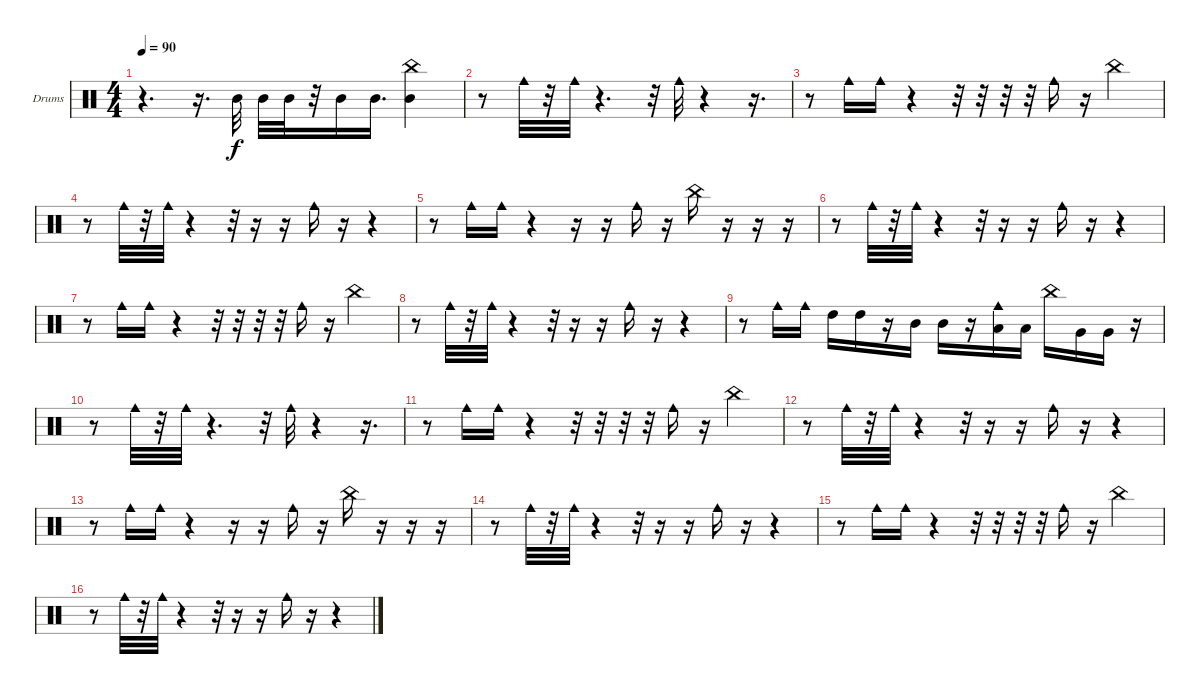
\defaultSystemsLayout 4
\bracketExtendMode groupsimilarinstruments
\firstSystemTrackNameOrientation horizontal
\otherSystemsTrackNameOrientation horizontal
\track ("Drumkit" "Drums") {instrument percussion}
\staff {score}
\articulation defaults
\ts (4 4)
\tempo 90
\clef neutral
\scale
0.472222
\ks c
r.4{d dy f} r.16{d} "Mid Tom (hit)".32 "Mid Tom (hit)".32 "Mid Tom (hit)".32 r.32 "Mid Tom (hit)".16 "Mid Tom (hit)".16{d} ("China (hit)" "Mid Tom (hit)").4 |
\scale
0.263889 r.8 "Cowbell medium (hit)".32 r.32 "Cowbell medium (hit)".32 r.4{d} r.32 "Cowbell medium (hit)".32 r.4 r.16{d} |
\scale
0.263889 r.8 "Cowbell medium (hit)".16 "Cowbell medium (hit)".16 r.4 r.32 r.32 r.32 r.32 "Cowbell medium (hit)".16 r.16 "China (hit)".4 |
\scale
0.333333 r.8 "Cowbell medium (hit)".32 r.32 "Cowbell medium (hit)".32 r.4 r.32 r.16 r.16 "Cowbell medium (hit)".16 r.16 r.4 |
\scale
0.333333 r.8 "Cowbell medium (hit)".16 "Cowbell medium (hit)".16 r.4 r.16 r.16 "Cowbell medium (hit)".16 r.16 "China (hit)".16 r.16 r.16 r.16 |
\scale
0.333333 r.8 "Cowbell medium (hit)".32 r.32 "Cowbell medium (hit)".32 r.4 r.32 r.16 r.16 "Cowbell medium (hit)".16 r.16 r.4 |
\scale
0.333333 r.8 "Cowbell medium (hit)".16 "Cowbell medium (hit)".16 r.4 r.32 r.32 r.32 r.32 "Cowbell medium (hit)".16 r.16 "China (hit)".4 |
\scale
0.333333 r.8 "Cowbell medium (hit)".32 r.32 "Cowbell medium (hit)".32 r.4 r.32 r.16 r.16 "Cowbell medium (hit)".16 r.16 r.4 |
\scale
0.333333 r.8 "Cowbell medium (hit)".16 "Cowbell medium (hit)".16 "High Tom (hit)".16 "High Tom (hit)".16 r.16 "Mid Tom (hit)".16 "Mid Tom (hit)".16 r.16 ("Low Tom (hit)" "Cowbell medium (hit)").16 "Low Tom (hit)".16 "China (hit)".16 "Very Low Tom (hit)".16 "Very Low Tom (hit)".16 r.16 |
\scale
0.333333 r.8 "Cowbell medium (hit)".32 r.32 "Cowbell medium (hit)".32 r.4{d} r.32 "Cowbell medium (hit)".32 r.4 r.16{d} |
\scale
0.333333 r.8 "Cowbell medium (hit)".16 "Cowbell medium (hit)".16 r.4 r.32 r.32 r.32 r.32 "Cowbell medium (hit)".16 r.16 "China (hit)".4 |
\scale
0.333333 r.8 "Cowbell medium (hit)".32 r.32 "Cowbell medium (hit)".32 r.4 r.32 r.16 r.16 "Cowbell medium (hit)".16 r.16 r.4 |
\scale
0.333333 r.8 "Cowbell medium (hit)".16 "Cowbell medium (hit)".16 r.4 r.16 r.16 "Cowbell medium (hit)".16 r.16 "China (hit)".16 r.16 r.16 r.16 |
\scale
0.333333 r.8 "Cowbell medium (hit)".32 r.32 "Cowbell medium (hit)".32 r.4 r.32 r.16 r.16 "Cowbell medium (hit)".16 r.16 r.4 |
\scale
0.333333 r.8 "Cowbell medium (hit)".16 "Cowbell medium (hit)".16 r.4 r.32 r.32 r.32 r.32 "Cowbell medium (hit)".16 r.16 "China (hit)".4 |
\scale
0.333333 r.8 "Cowbell medium (hit)".32 r.32 "Cowbell medium (hit)".32 r.4 r.32 r.16 r.16 "Cowbell medium (hit)".16 r.16 r.4
